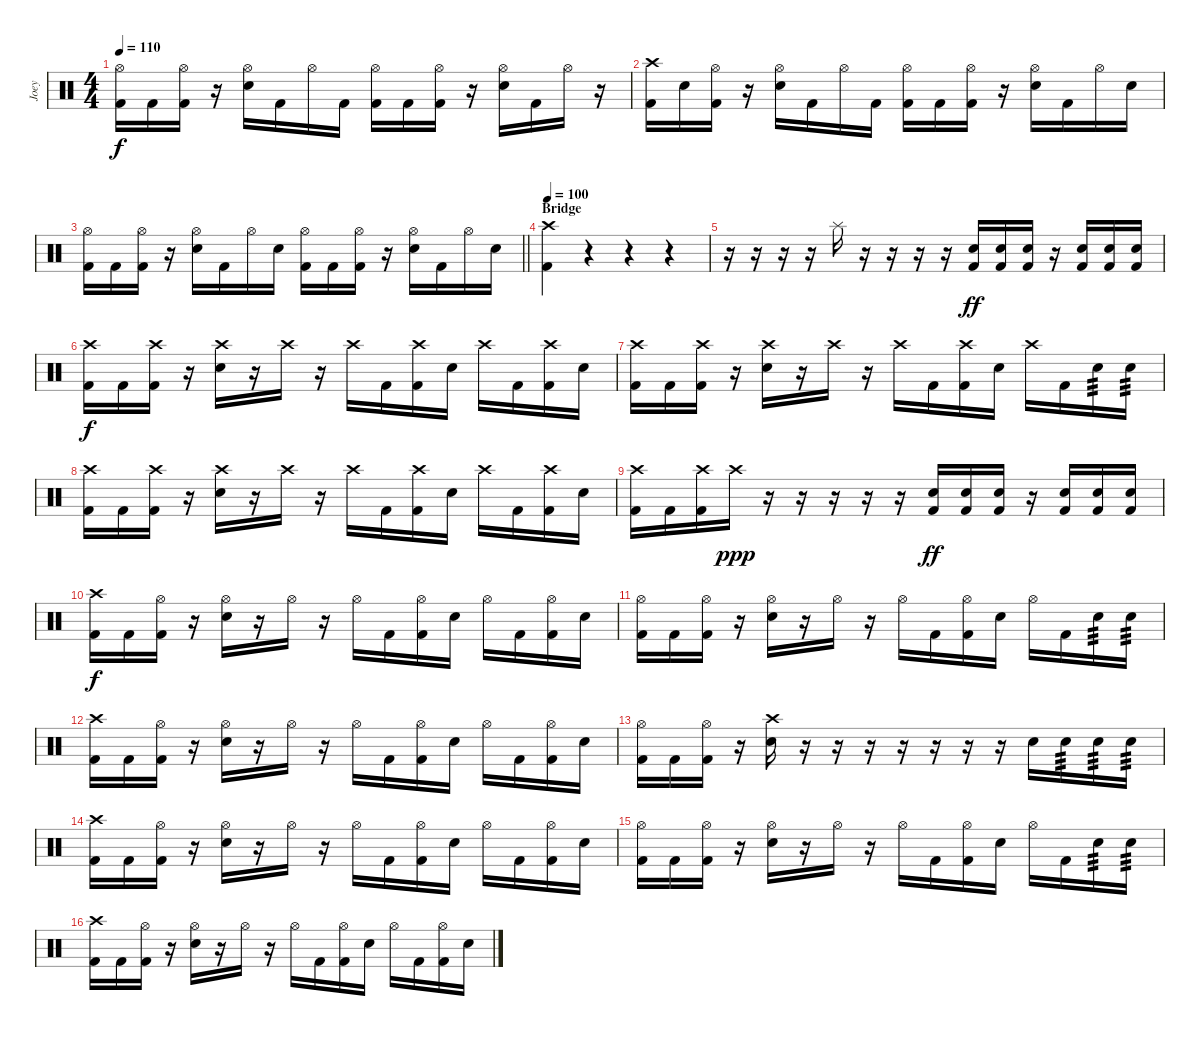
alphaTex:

\track ("Joey" "Joey") {instrument percussion}
\staff {score}
\articulation defaults
\ts (4 4)
\tempo 110
\clef neutral
\ks c
("Hi-Hat (open)" "Kick (hit) 2").16{dy f} "Kick (hit) 2".16 ("Hi-Hat (open)" "Kick (hit) 2").16 r.16 ("Hi-Hat (open)" "Electric Snare (hit)").16 "Kick (hit) 2".16 "Hi-Hat (open)".16 "Kick (hit) 2".16 ("Hi-Hat (open)" "Kick (hit) 2").16 "Kick (hit) 2".16 ("Hi-Hat (open)" "Kick (hit) 2").16 r.16 ("Hi-Hat (open)" "Electric Snare (hit)").16 "Kick (hit) 2".16 "Hi-Hat (open)".16 r.16 |
("Crash high (hit)" "Kick (hit) 2").16 "Electric Snare (hit)".16 ("Hi-Hat (open)" "Kick (hit) 2").16 r.16 ("Hi-Hat (open)" "Electric Snare (hit)").16 "Kick (hit) 2".16 "Hi-Hat (open)".16 "Kick (hit) 2".16 ("Hi-Hat (open)" "Kick (hit) 2").16 "Kick (hit) 2".16 ("Hi-Hat (open)" "Kick (hit) 2").16 r.16 ("Hi-Hat (open)" "Electric Snare (hit)").16 "Kick (hit) 2".16 "Hi-Hat (open)".16 "Electric Snare (hit)".16 |
\barLineRight lightlight
("Hi-Hat (open)" "Kick (hit) 2").16 "Kick (hit) 2".16 ("Hi-Hat (open)" "Kick (hit) 2").16 r.16 ("Hi-Hat (open)" "Electric Snare (hit)").16 "Kick (hit) 2".16 "Hi-Hat (open)".16 "Electric Snare (hit)".16 ("Hi-Hat (open)" "Kick (hit) 2").16 "Kick (hit) 2".16 ("Hi-Hat (open)" "Kick (hit) 2").16 r.16 ("Hi-Hat (open)" "Electric Snare (hit)").16 "Kick (hit) 2".16 "Hi-Hat (open)".16 "Electric Snare (hit)".16 |
\section ("" "Bridge")
\tempo 100
("Crash high (hit)" "Kick (hit) 2").4 r.4 r.4 r.4 |
r.16 r.16 r.16 r.16 "Splash (hit)".16 r.16 r.16 r.16 r.16 ("Electric Snare (hit)" "Kick (hit) 2").16{dy ff} ("Electric Snare (hit)" "Kick (hit) 2").16 ("Electric Snare (hit)" "Kick (hit) 2").16 r.16 ("Electric Snare (hit)" "Kick (hit) 2").16 ("Electric Snare (hit)" "Kick (hit) 2").16 ("Electric Snare (hit)" "Kick (hit) 2").16 |
("Crash high (hit)" "Kick (hit) 2").16{dy f} "Kick (hit) 2".16 ("Crash high (hit)" "Kick (hit) 2").16 r.16 ("Crash high (hit)" "Electric Snare (hit)").16 r.16 "Crash high (hit)".16 r.16 "Crash high (hit)".16 "Kick (hit) 2".16 ("Crash high (hit)" "Kick (hit) 2").16 "Electric Snare (hit)".16 "Crash high (hit)".16 "Kick (hit) 2".16 ("Crash high (hit)" "Kick (hit) 2").16 "Electric Snare (hit)".16 |
("Crash high (hit)" "Kick (hit) 2").16 "Kick (hit) 2".16 ("Crash high (hit)" "Kick (hit) 2").16 r.16 ("Crash high (hit)" "Electric Snare (hit)").16 r.16 "Crash high (hit)".16 r.16 "Crash high (hit)".16 "Kick (hit) 2".16 ("Crash high (hit)" "Kick (hit) 2").16 "Electric Snare (hit)".16 "Crash high (hit)".16 "Kick (hit) 2".16 "Electric Snare (hit)".16{tp 3} "Electric Snare (hit)".16{tp 3} |
("Crash high (hit)" "Kick (hit) 2").16 "Kick (hit) 2".16 ("Crash high (hit)" "Kick (hit) 2").16 r.16 ("Crash high (hit)" "Electric Snare (hit)").16 r.16 "Crash high (hit)".16 r.16 "Crash high (hit)".16 "Kick (hit) 2".16 ("Crash high (hit)" "Kick (hit) 2").16 "Electric Snare (hit)".16 "Crash high (hit)".16 "Kick (hit) 2".16 ("Crash high (hit)" "Kick (hit) 2").16 "Electric Snare (hit)".16 |
("Crash high (hit)" "Kick (hit) 2").16 "Kick (hit) 2".16 ("Crash high (hit)" "Kick (hit) 2").16 "Crash high (hit)".16{dy ppp} r.16 r.16 r.16 r.16 r.16 ("Kick (hit) 2" "Electric Snare (hit)").16{dy ff} ("Kick (hit) 2" "Electric Snare (hit)").16 ("Kick (hit) 2" "Electric Snare (hit)").16 r.16 ("Kick (hit) 2" "Electric Snare (hit)").16 ("Kick (hit) 2" "Electric Snare (hit)").16 ("Kick (hit) 2" "Electric Snare (hit)").16 |
("Crash high (hit)" "Kick (hit) 2").16{dy f} "Kick (hit) 2".16 ("Hi-Hat (open)" "Kick (hit) 2").16 r.16 ("Hi-Hat (open)" "Electric Snare (hit)").16 r.16 "Hi-Hat (open)".16 r.16 "Hi-Hat (open)".16 "Kick (hit) 2".16 ("Hi-Hat (open)" "Kick (hit) 2").16 "Electric Snare (hit)".16 "Hi-Hat (open)".16 "Kick (hit) 2".16 ("Hi-Hat (open)" "Kick (hit) 2").16 "Electric Snare (hit)".16 |
("Hi-Hat (open)" "Kick (hit) 2").16 "Kick (hit) 2".16 ("Hi-Hat (open)" "Kick (hit) 2").16 r.16 ("Hi-Hat (open)" "Electric Snare (hit)").16 r.16 "Hi-Hat (open)".16 r.16 "Hi-Hat (open)".16 "Kick (hit) 2".16 ("Hi-Hat (open)" "Kick (hit) 2").16 "Electric Snare (hit)".16 "Hi-Hat (open)".16 "Kick (hit) 2".16 "Electric Snare (hit)".16{tp 3} "Electric Snare (hit)".16{tp 3} |
("Crash high (hit)" "Kick (hit) 2").16 "Kick (hit) 2".16 ("Hi-Hat (open)" "Kick (hit) 2").16 r.16 ("Hi-Hat (open)" "Electric Snare (hit)").16 r.16 "Hi-Hat (open)".16 r.16 "Hi-Hat (open)".16 "Kick (hit) 2".16 ("Hi-Hat (open)" "Kick (hit) 2").16 "Electric Snare (hit)".16 "Hi-Hat (open)".16 "Kick (hit) 2".16 ("Hi-Hat (open)" "Kick (hit) 2").16 "Electric Snare (hit)".16 |
("Hi-Hat (open)" "Kick (hit) 2").16 "Kick (hit) 2".16 ("Hi-Hat (open)" "Kick (hit) 2").16 r.16 ("Crash high (hit)" "Electric Snare (hit)").16 r.16 r.16 r.16 r.16 r.16 r.16 r.16 "Electric Snare (hit)".16 "Electric Snare (hit)".16{tp 3} "Electric Snare (hit)".16{tp 3} "Electric Snare (hit)".16{tp 3} |
("Crash high (hit)" "Kick (hit) 2").16 "Kick (hit) 2".16 ("Hi-Hat (open)" "Kick (hit) 2").16 r.16 ("Hi-Hat (open)" "Electric Snare (hit)").16 r.16 "Hi-Hat (open)".16 r.16 "Hi-Hat (open)".16 "Kick (hit) 2".16 ("Hi-Hat (open)" "Kick (hit) 2").16 "Electric Snare (hit)".16 "Hi-Hat (open)".16 "Kick (hit) 2".16 ("Hi-Hat (open)" "Kick (hit) 2").16 "Electric Snare (hit)".16 |
("Hi-Hat (open)" "Kick (hit) 2").16 "Kick (hit) 2".16 ("Hi-Hat (open)" "Kick (hit) 2").16 r.16 ("Hi-Hat (open)" "Electric Snare (hit)").16 r.16 "Hi-Hat (open)".16 r.16 "Hi-Hat (open)".16 "Kick (hit) 2".16 ("Hi-Hat (open)" "Kick (hit) 2").16 "Electric Snare (hit)".16 "Hi-Hat (open)".16 "Kick (hit) 2".16 "Electric Snare (hit)".16{tp 3} "Electric Snare (hit)".16{tp 3} |
("Crash high (hit)" "Kick (hit) 2").16 "Kick (hit) 2".16 ("Hi-Hat (open)" "Kick (hit) 2").16 r.16 ("Hi-Hat (open)" "Electric Snare (hit)").16 r.16 "Hi-Hat (open)".16 r.16 "Hi-Hat (open)".16 "Kick (hit) 2".16 ("Hi-Hat (open)" "Kick (hit) 2").16 "Electric Snare (hit)".16 "Hi-Hat (open)".16 "Kick (hit) 2".16 ("Hi-Hat (open)" "Kick (hit) 2").16 "Electric Snare (hit)".16
